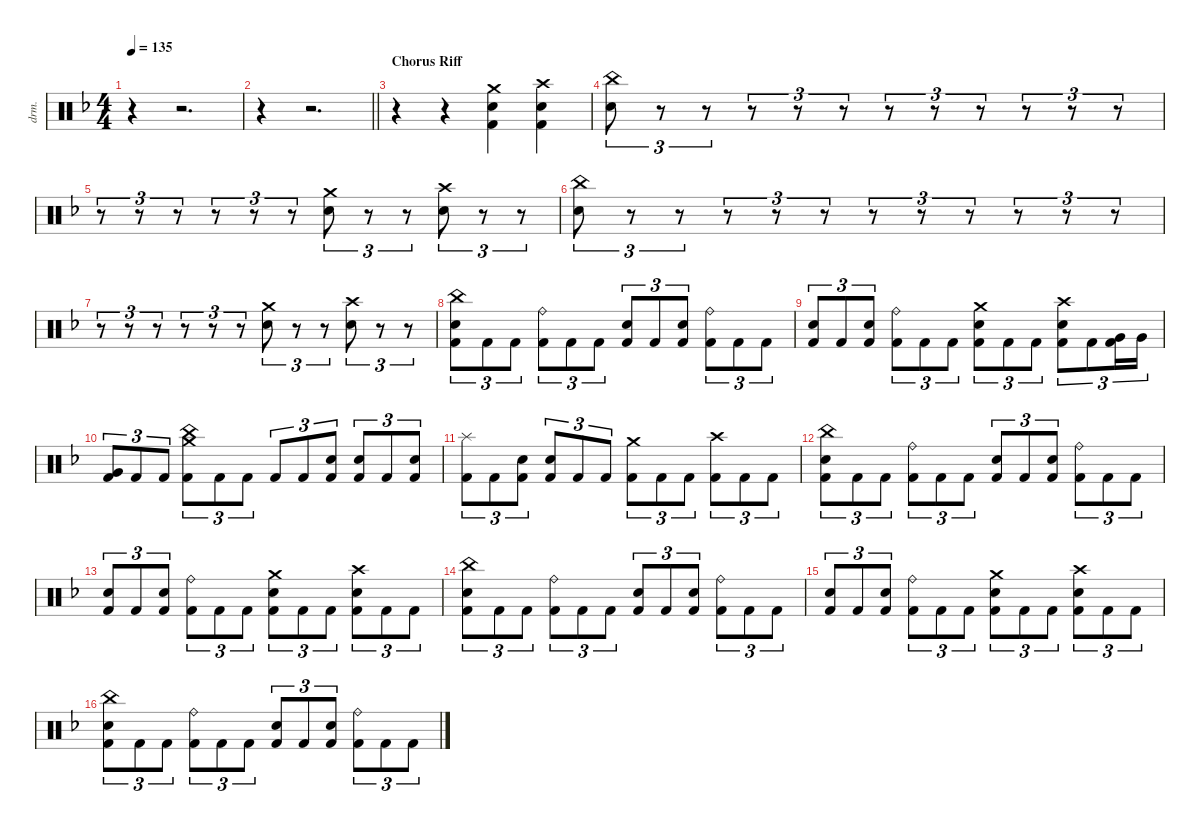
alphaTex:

\defaultSystemsLayout 4
\hideDynamics
\bracketExtendMode nobrackets
\otherSystemsTrackNameOrientation horizontal
\track ("Drums" "drm.") {instrument percussion}
\staff {score}
\articulation defaults
\ts (4 4)
\tempo 135
\clef neutral
\ks dminor
r.4{dy f} r.2{d} |
\barLineRight lightlight
r.4 r.2{d} |
\section ("" "Chorus Riff")
r.4 r.4 ("Crash medium (hit)"{acc forcenatural} "Snare (hit) 2"{acc forcenatural} "Kick (hit) 2"{acc forcenatural}).4 ("Crash high (hit)"{acc forcenatural} "Snare (hit) 2"{acc forcenatural} "Kick (hit) 2"{acc forcenatural}).4 |
("China (hit)"{acc forcenatural} "Snare (hit) 2"{acc forcenatural}).8{tu (3 2)} r.8{tu (3 2)} r.8{tu (3 2)} r.8{tu (3 2)} r.8{tu (3 2)} r.8{tu (3 2)} r.8{tu (3 2)} r.8{tu (3 2)} r.8{tu (3 2)} r.8{tu (3 2)} r.8{tu (3 2)} r.8{tu (3 2)} |
r.8{tu (3 2)} r.8{tu (3 2)} r.8{tu (3 2)} r.8{tu (3 2)} r.8{tu (3 2)} r.8{tu (3 2)} ("Crash medium (hit)"{acc forcenatural} "Snare (hit) 2"{acc forcenatural}).8{tu (3 2)} r.8{tu (3 2)} r.8{tu (3 2)} ("Crash high (hit)"{acc forcenatural} "Snare (hit) 2"{acc forcenatural}).8{tu (3 2)} r.8{tu (3 2)} r.8{tu (3 2)} |
("China (hit)"{acc forcenatural} "Snare (hit) 2"{acc forcenatural}).8{tu (3 2)} r.8{tu (3 2)} r.8{tu (3 2)} r.8{tu (3 2)} r.8{tu (3 2)} r.8{tu (3 2)} r.8{tu (3 2)} r.8{tu (3 2)} r.8{tu (3 2)} r.8{tu (3 2)} r.8{tu (3 2)} r.8{tu (3 2)} |
r.8{tu (3 2)} r.8{tu (3 2)} r.8{tu (3 2)} r.8{tu (3 2)} r.8{tu (3 2)} r.8{tu (3 2)} ("Crash medium (hit)"{acc forcenatural} "Snare (hit) 2"{acc forcenatural}).8{tu (3 2)} r.8{tu (3 2)} r.8{tu (3 2)} ("Crash high (hit)"{acc forcenatural} "Snare (hit) 2"{acc forcenatural}).8{tu (3 2)} r.8{tu (3 2)} r.8{tu (3 2)} |
("China (hit)"{acc forcenatural} "Snare (hit) 2"{acc forcenatural} "Kick (hit) 2"{acc forcenatural}).8{tu (3 2)} "Kick (hit) 2"{acc forcenatural}.8{tu (3 2)} "Kick (hit) 2"{acc forcenatural}.8{tu (3 2)} ("Ride (bell)"{acc forcenatural} "Kick (hit) 2"{acc forcenatural}).8{tu (3 2)} "Kick (hit) 2"{acc forcenatural}.8{tu (3 2)} "Kick (hit) 2"{acc forcenatural}.8{tu (3 2)} ("Snare (hit) 2"{acc forcenatural} "Kick (hit) 2"{acc forcenatural}).8{tu (3 2)} "Kick (hit) 2"{acc forcenatural}.8{tu (3 2)} ("Snare (hit) 2"{acc forcenatural} "Kick (hit) 2"{acc forcenatural}).8{tu (3 2)} ("Ride (bell)"{acc forcenatural} "Kick (hit) 2"{acc forcenatural}).8{tu (3 2)} "Kick (hit) 2"{acc forcenatural}.8{tu (3 2)} "Kick (hit) 2"{acc forcenatural}.8{tu (3 2)} |
("Snare (hit) 2"{acc forcenatural} "Kick (hit) 2"{acc forcenatural}).8{tu (3 2)} "Kick (hit) 2"{acc forcenatural}.8{tu (3 2)} ("Snare (hit) 2"{acc forcenatural} "Kick (hit) 2"{acc forcenatural}).8{tu (3 2)} ("Ride (bell)"{acc forcenatural} "Kick (hit) 2"{acc forcenatural}).8{tu (3 2)} "Kick (hit) 2"{acc forcenatural}.8{tu (3 2)} "Kick (hit) 2"{acc forcenatural}.8{tu (3 2)} ("Crash medium (hit)"{acc forcenatural} "Snare (hit) 2"{acc forcenatural} "Kick (hit) 2"{acc forcenatural}).8{tu (3 2)} "Kick (hit) 2"{acc forcenatural}.8{tu (3 2)} "Kick (hit) 2"{acc forcenatural}.8{tu (3 2)} ("Crash high (hit)"{acc forcenatural} "Snare (hit) 2"{acc forcenatural} "Kick (hit) 2"{acc forcenatural}).8{tu (3 2)} "Kick (hit) 2"{acc forcenatural}.8{tu (3 2)} ("Very Low Tom (hit)"{acc forcenatural} "Kick (hit) 2"{acc forcenatural}).16{tu (3 2)} "Very Low Tom (hit)"{acc forcenatural}.16{tu (3 2)} |
("Very Low Tom (hit)"{acc forcenatural} "Kick (hit) 2"{acc forcenatural}).8{tu (3 2)} "Kick (hit) 2"{acc forcenatural}.8{tu (3 2)} "Kick (hit) 2"{acc forcenatural}.8{tu (3 2)} ("China (hit)"{acc forcenatural} "Crash medium (hit)"{acc forcenatural} "Kick (hit) 2"{acc forcenatural}).8{tu (3 2)} "Kick (hit) 2"{acc forcenatural}.8{tu (3 2)} "Kick (hit) 2"{acc forcenatural}.8{tu (3 2)} "Kick (hit) 2"{acc forcenatural}.8{tu (3 2)} "Kick (hit) 2"{acc forcenatural}.8{tu (3 2)} ("Snare (hit) 2"{acc forcenatural} "Kick (hit) 2"{acc forcenatural}).8{tu (3 2)} ("Snare (hit) 2"{acc forcenatural} "Kick (hit) 2"{acc forcenatural}).8{tu (3 2)} "Kick (hit) 2"{acc forcenatural}.8{tu (3 2)} ("Snare (hit) 2"{acc forcenatural} "Kick (hit) 2"{acc forcenatural}).8{tu (3 2)} |
("Splash (hit)"{acc forcenatural} "Kick (hit) 2"{acc forcenatural}).8{tu (3 2)} "Kick (hit) 2"{acc forcenatural}.8{tu (3 2)} ("Snare (hit) 2"{acc forcenatural} "Kick (hit) 2"{acc forcenatural}).8{tu (3 2)} ("Snare (hit) 2"{acc forcenatural} "Kick (hit) 2"{acc forcenatural}).8{tu (3 2)} "Kick (hit) 2"{acc forcenatural}.8{tu (3 2)} "Kick (hit) 2"{acc forcenatural}.8{tu (3 2)} ("Crash medium (hit)"{acc forcenatural} "Kick (hit) 2"{acc forcenatural}).8{tu (3 2)} "Kick (hit) 2"{acc forcenatural}.8{tu (3 2)} "Kick (hit) 2"{acc forcenatural}.8{tu (3 2)} ("Crash high (hit)"{acc forcenatural} "Kick (hit) 2"{acc forcenatural}).8{tu (3 2)} "Kick (hit) 2"{acc forcenatural}.8{tu (3 2)} "Kick (hit) 2"{acc forcenatural}.8{tu (3 2)} |
("China (hit)"{acc forcenatural} "Snare (hit) 2"{acc forcenatural} "Kick (hit) 2"{acc forcenatural}).8{tu (3 2)} "Kick (hit) 2"{acc forcenatural}.8{tu (3 2)} "Kick (hit) 2"{acc forcenatural}.8{tu (3 2)} ("Ride (bell)"{acc forcenatural} "Kick (hit) 2"{acc forcenatural}).8{tu (3 2)} "Kick (hit) 2"{acc forcenatural}.8{tu (3 2)} "Kick (hit) 2"{acc forcenatural}.8{tu (3 2)} ("Snare (hit) 2"{acc forcenatural} "Kick (hit) 2"{acc forcenatural}).8{tu (3 2)} "Kick (hit) 2"{acc forcenatural}.8{tu (3 2)} ("Snare (hit) 2"{acc forcenatural} "Kick (hit) 2"{acc forcenatural}).8{tu (3 2)} ("Ride (bell)"{acc forcenatural} "Kick (hit) 2"{acc forcenatural}).8{tu (3 2)} "Kick (hit) 2"{acc forcenatural}.8{tu (3 2)} "Kick (hit) 2"{acc forcenatural}.8{tu (3 2)} |
("Snare (hit) 2"{acc forcenatural} "Kick (hit) 2"{acc forcenatural}).8{tu (3 2)} "Kick (hit) 2"{acc forcenatural}.8{tu (3 2)} ("Snare (hit) 2"{acc forcenatural} "Kick (hit) 2"{acc forcenatural}).8{tu (3 2)} ("Ride (bell)"{acc forcenatural} "Kick (hit) 2"{acc forcenatural}).8{tu (3 2)} "Kick (hit) 2"{acc forcenatural}.8{tu (3 2)} "Kick (hit) 2"{acc forcenatural}.8{tu (3 2)} ("Crash medium (hit)"{acc forcenatural} "Snare (hit) 2"{acc forcenatural} "Kick (hit) 2"{acc forcenatural}).8{tu (3 2)} "Kick (hit) 2"{acc forcenatural}.8{tu (3 2)} "Kick (hit) 2"{acc forcenatural}.8{tu (3 2)} ("Crash high (hit)"{acc forcenatural} "Snare (hit) 2"{acc forcenatural} "Kick (hit) 2"{acc forcenatural}).8{tu (3 2)} "Kick (hit) 2"{acc forcenatural}.8{tu (3 2)} "Kick (hit) 2"{acc forcenatural}.8{tu (3 2)} |
("China (hit)"{acc forcenatural} "Snare (hit) 2"{acc forcenatural} "Kick (hit) 2"{acc forcenatural}).8{tu (3 2)} "Kick (hit) 2"{acc forcenatural}.8{tu (3 2)} "Kick (hit) 2"{acc forcenatural}.8{tu (3 2)} ("Ride (bell)"{acc forcenatural} "Kick (hit) 2"{acc forcenatural}).8{tu (3 2)} "Kick (hit) 2"{acc forcenatural}.8{tu (3 2)} "Kick (hit) 2"{acc forcenatural}.8{tu (3 2)} ("Snare (hit) 2"{acc forcenatural} "Kick (hit) 2"{acc forcenatural}).8{tu (3 2)} "Kick (hit) 2"{acc forcenatural}.8{tu (3 2)} ("Snare (hit) 2"{acc forcenatural} "Kick (hit) 2"{acc forcenatural}).8{tu (3 2)} ("Ride (bell)"{acc forcenatural} "Kick (hit) 2"{acc forcenatural}).8{tu (3 2)} "Kick (hit) 2"{acc forcenatural}.8{tu (3 2)} "Kick (hit) 2"{acc forcenatural}.8{tu (3 2)} |
("Snare (hit) 2"{acc forcenatural} "Kick (hit) 2"{acc forcenatural}).8{tu (3 2)} "Kick (hit) 2"{acc forcenatural}.8{tu (3 2)} ("Snare (hit) 2"{acc forcenatural} "Kick (hit) 2"{acc forcenatural}).8{tu (3 2)} ("Ride (bell)"{acc forcenatural} "Kick (hit) 2"{acc forcenatural}).8{tu (3 2)} "Kick (hit) 2"{acc forcenatural}.8{tu (3 2)} "Kick (hit) 2"{acc forcenatural}.8{tu (3 2)} ("Crash medium (hit)"{acc forcenatural} "Snare (hit) 2"{acc forcenatural} "Kick (hit) 2"{acc forcenatural}).8{tu (3 2)} "Kick (hit) 2"{acc forcenatural}.8{tu (3 2)} "Kick (hit) 2"{acc forcenatural}.8{tu (3 2)} ("Crash high (hit)"{acc forcenatural} "Snare (hit) 2"{acc forcenatural} "Kick (hit) 2"{acc forcenatural}).8{tu (3 2)} "Kick (hit) 2"{acc forcenatural}.8{tu (3 2)} "Kick (hit) 2"{acc forcenatural}.8{tu (3 2)} |
("China (hit)"{acc forcenatural} "Snare (hit) 2"{acc forcenatural} "Kick (hit) 2"{acc forcenatural}).8{tu (3 2)} "Kick (hit) 2"{acc forcenatural}.8{tu (3 2)} "Kick (hit) 2"{acc forcenatural}.8{tu (3 2)} ("Ride (bell)"{acc forcenatural} "Kick (hit) 2"{acc forcenatural}).8{tu (3 2)} "Kick (hit) 2"{acc forcenatural}.8{tu (3 2)} "Kick (hit) 2"{acc forcenatural}.8{tu (3 2)} ("Snare (hit) 2"{acc forcenatural} "Kick (hit) 2"{acc forcenatural}).8{tu (3 2)} "Kick (hit) 2"{acc forcenatural}.8{tu (3 2)} ("Snare (hit) 2"{acc forcenatural} "Kick (hit) 2"{acc forcenatural}).8{tu (3 2)} ("Ride (bell)"{acc forcenatural} "Kick (hit) 2"{acc forcenatural}).8{tu (3 2)} "Kick (hit) 2"{acc forcenatural}.8{tu (3 2)} "Kick (hit) 2"{acc forcenatural}.8{tu (3 2)}
